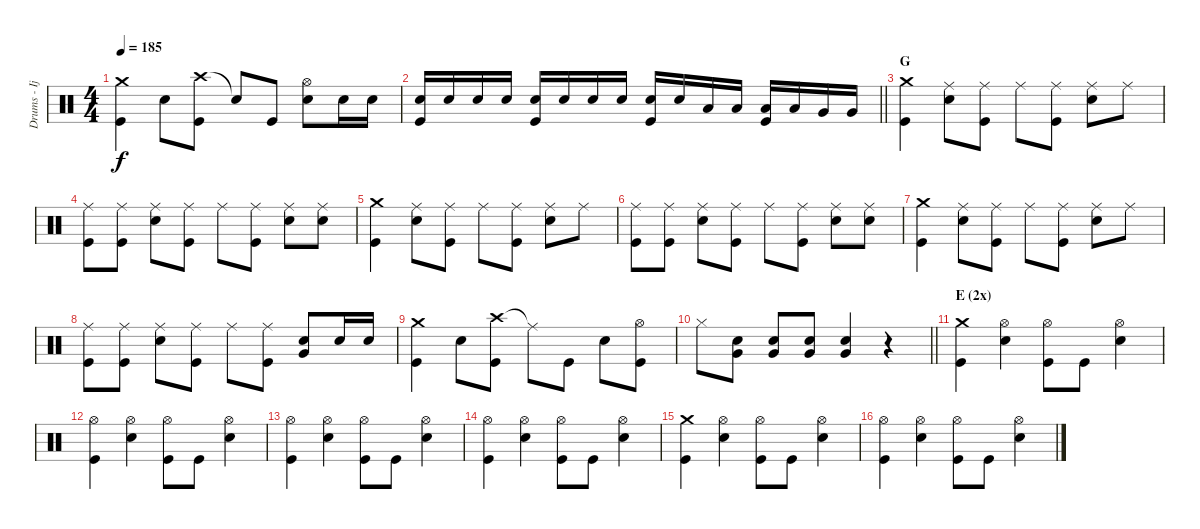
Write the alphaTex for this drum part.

\track ("Drums - Ijichi" "Drums - Ij") {instrument percussion}
\staff {score}
\articulation defaults
\ts (4 4)
\tempo 185
\clef neutral
\ks c
("Crash medium (hit)" "Kick (hit)").4{dy f} "Electric Snare (hit)".8 ("Crash high (hit)" "Kick (hit)").8 "Snare (hit)"{t}.8 "Kick (hit)".8 ("Hi-Hat (open)" "Electric Snare (hit)").8 "Electric Snare (hit)".16 "Electric Snare (hit)".16 |
\barLineRight lightlight
("Electric Snare (hit)" "Kick (hit)").16 "Electric Snare (hit)".16 "Electric Snare (hit)".16 "Electric Snare (hit)".16 ("Electric Snare (hit)" "Kick (hit)").16 "Electric Snare (hit)".16 "Electric Snare (hit)".16 "Electric Snare (hit)".16 ("Electric Snare (hit)" "Kick (hit)").16 "Electric Snare (hit)".16 "Low Tom (hit)".16 "Low Tom (hit)".16 ("Low Tom (hit)" "Kick (hit)").16 "Low Tom (hit)".16 "Very Low Tom (hit)".16 "Very Low Tom (hit)".16 |
\section ("" "G")
("Crash medium (hit)" "Kick (hit)").4 ("Ride (middle)" "Electric Snare (hit)").8 ("Ride (middle)" "Kick (hit)").8 "Ride (middle)".8 ("Ride (middle)" "Kick (hit)").8 ("Ride (middle)" "Electric Snare (hit)").8 "Ride (middle)".8 |
("Ride (middle)" "Kick (hit)").8 ("Ride (middle)" "Kick (hit)").8 ("Ride (middle)" "Electric Snare (hit)").8 ("Ride (middle)" "Kick (hit)").8 "Ride (middle)".8 ("Ride (middle)" "Kick (hit)").8 ("Ride (middle)" "Electric Snare (hit)").8 ("Ride (middle)" "Electric Snare (hit)").8 |
("Crash medium (hit)" "Kick (hit)").4 ("Ride (middle)" "Electric Snare (hit)").8 ("Ride (middle)" "Kick (hit)").8 "Ride (middle)".8 ("Ride (middle)" "Kick (hit)").8 ("Ride (middle)" "Electric Snare (hit)").8 "Ride (middle)".8 |
("Ride (middle)" "Kick (hit)").8 ("Ride (middle)" "Kick (hit)").8 ("Ride (middle)" "Electric Snare (hit)").8 ("Ride (middle)" "Kick (hit)").8 "Ride (middle)".8 ("Ride (middle)" "Kick (hit)").8 ("Ride (middle)" "Electric Snare (hit)").8 ("Ride (middle)" "Electric Snare (hit)").8 |
("Crash medium (hit)" "Kick (hit)").4 ("Ride (middle)" "Electric Snare (hit)").8 ("Ride (middle)" "Kick (hit)").8 "Ride (middle)".8 ("Ride (middle)" "Kick (hit)").8 ("Ride (middle)" "Electric Snare (hit)").8 "Ride (middle)".8 |
("Ride (middle)" "Kick (hit)").8 ("Ride (middle)" "Kick (hit)").8 ("Ride (middle)" "Electric Snare (hit)").8 ("Ride (middle)" "Kick (hit)").8 "Ride (middle)".8 ("Ride (middle)" "Kick (hit)").8 ("Electric Snare (hit)" "Very Low Tom (hit)").8 "Electric Snare (hit)".16 "Electric Snare (hit)".16 |
("Crash medium (hit)" "Kick (hit)").4 "Electric Snare (hit)".8 ("Crash high (hit)" "Kick (hit)").8 "Ride (middle)"{t}.8 "Kick (hit)".8 "Electric Snare (hit)".8 ("Hi-Hat (open)" "Kick (hit)").8 |
\barLineRight lightlight "Hi-Hat (closed)".8
("Electric Snare (hit)" "Very Low Tom (hit)").8 ("Electric Snare (hit)" "Very Low Tom (hit)").8 ("Electric Snare (hit)" "Very Low Tom (hit)").8 ("Electric Snare (hit)" "Very Low Tom (hit)").4 r.4 |
\section ("" "E (2x)")
("Crash medium (hit)" "Kick (hit)").4 ("Hi-Hat (open)" "Electric Snare (hit)").4 ("Hi-Hat (open)" "Kick (hit)").8 "Kick (hit)".8 ("Hi-Hat (open)" "Electric Snare (hit)").4 |
("Hi-Hat (open)" "Kick (hit)").4 ("Hi-Hat (open)" "Electric Snare (hit)").4 ("Hi-Hat (open)" "Kick (hit)").8 "Kick (hit)".8 ("Hi-Hat (open)" "Electric Snare (hit)").4 |
("Hi-Hat (open)" "Kick (hit)").4 ("Hi-Hat (open)" "Electric Snare (hit)").4 ("Hi-Hat (open)" "Kick (hit)").8 "Kick (hit)".8 ("Hi-Hat (open)" "Electric Snare (hit)").4 |
("Hi-Hat (open)" "Kick (hit)").4 ("Hi-Hat (open)" "Electric Snare (hit)").4 ("Hi-Hat (open)" "Kick (hit)").8 "Kick (hit)".8 ("Hi-Hat (open)" "Electric Snare (hit)").4 |
("Crash medium (hit)" "Kick (hit)").4 ("Hi-Hat (open)" "Electric Snare (hit)").4 ("Hi-Hat (open)" "Kick (hit)").8 "Kick (hit)".8 ("Hi-Hat (open)" "Electric Snare (hit)").4 |
("Hi-Hat (open)" "Kick (hit)").4 ("Hi-Hat (open)" "Electric Snare (hit)").4 ("Hi-Hat (open)" "Kick (hit)").8 "Kick (hit)".8 ("Hi-Hat (open)" "Electric Snare (hit)").4
